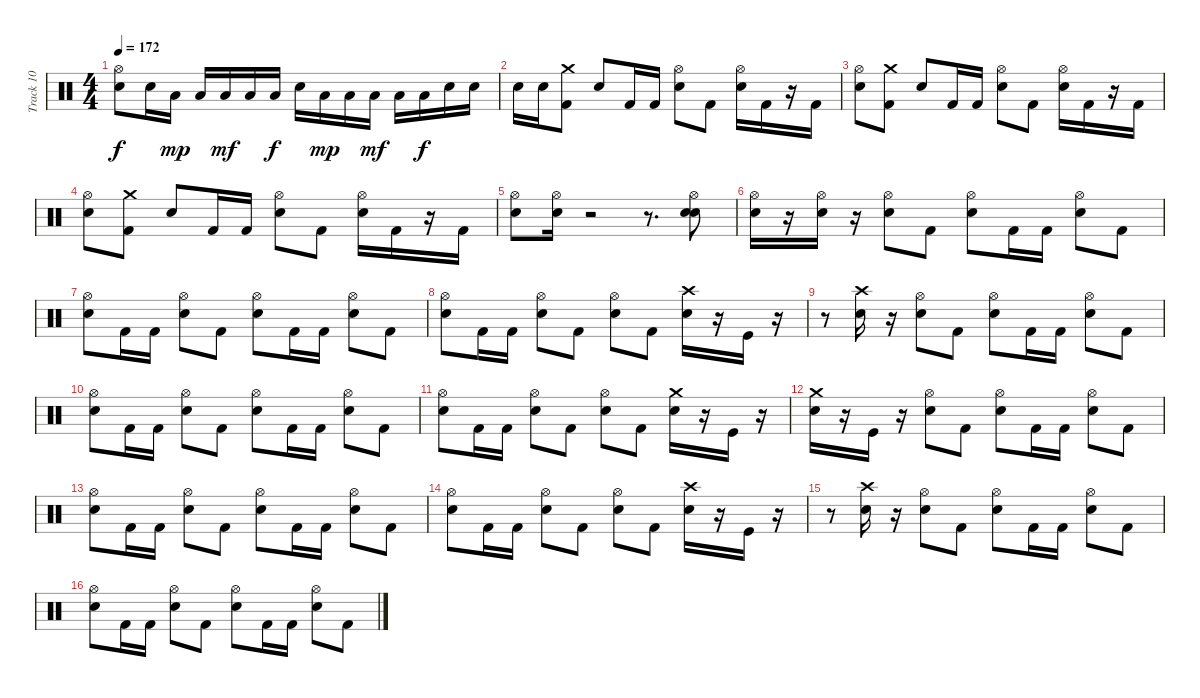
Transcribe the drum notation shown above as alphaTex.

\track ("Track 10" "Track 10") {instrument percussion}
\staff {score}
\articulation defaults
\ts (4 4)
\tempo 172
\clef neutral
\ks c
("Hi-Hat (open)" "Electric Snare (hit)").8{dy f} "Electric Snare (hit)".16 "Low Tom (hit)".16{dy mp} "Low Tom (hit)".16 "Low Tom (hit)".16{dy mf} "Low Tom (hit)".16 "Low Tom (hit)".16{dy f} "Electric Snare (hit)".16 "Low Tom (hit)".16{dy mp} "Low Tom (hit)".16 "Low Tom (hit)".16{dy mf} "Low Tom (hit)".16 "Low Tom (hit)".16{dy f} "Electric Snare (hit)".16 "Electric Snare (hit)".16 |
"Electric Snare (hit)".16 "Electric Snare (hit)".16 ("Crash medium (hit)" "Kick (hit) 2").8 "Electric Snare (hit)".8 "Kick (hit) 2".16 "Kick (hit) 2".16 ("Hi-Hat (open)" "Electric Snare (hit)").8 "Kick (hit) 2".8 ("Hi-Hat (open)" "Electric Snare (hit)").16 "Kick (hit) 2".16 r.16 "Kick (hit) 2".16 |
("Hi-Hat (open)" "Electric Snare (hit)").8 ("Crash medium (hit)" "Kick (hit) 2").8 "Electric Snare (hit)".8 "Kick (hit) 2".16 "Kick (hit) 2".16 ("Hi-Hat (open)" "Electric Snare (hit)").8 "Kick (hit) 2".8 ("Hi-Hat (open)" "Electric Snare (hit)").16 "Kick (hit) 2".16 r.16 "Kick (hit) 2".16 |
("Hi-Hat (open)" "Electric Snare (hit)").8 ("Crash medium (hit)" "Kick (hit) 2").8 "Electric Snare (hit)".8 "Kick (hit) 2".16 "Kick (hit) 2".16 ("Hi-Hat (open)" "Electric Snare (hit)").8 "Kick (hit) 2".8 ("Hi-Hat (open)" "Electric Snare (hit)").16 "Kick (hit) 2".16 r.16 "Kick (hit) 2".16 |
("Hi-Hat (open)" "Electric Snare (hit)").8 ("Electric Snare (hit)" "Hi-Hat (open)").16 r.2 r.8{d} ("Electric Snare (hit)" "Hi-Hat (open)" "Electric Snare (hit)").8 |
("Hi-Hat (open)" "Electric Snare (hit)").16 r.16 ("Hi-Hat (open)" "Electric Snare (hit)").16 r.16 ("Hi-Hat (open)" "Electric Snare (hit)").8 "Kick (hit) 2".8 ("Hi-Hat (open)" "Electric Snare (hit)").8 "Kick (hit) 2".16 "Kick (hit) 2".16 ("Hi-Hat (open)" "Electric Snare (hit)").8 "Kick (hit) 2".8 |
("Hi-Hat (open)" "Electric Snare (hit)").8 "Kick (hit) 2".16 "Kick (hit) 2".16 ("Hi-Hat (open)" "Electric Snare (hit)").8 "Kick (hit) 2".8 ("Hi-Hat (open)" "Electric Snare (hit)").8 "Kick (hit) 2".16 "Kick (hit) 2".16 ("Hi-Hat (open)" "Electric Snare (hit)").8 "Kick (hit) 2".8 |
("Hi-Hat (open)" "Electric Snare (hit)").8 "Kick (hit) 2".16 "Kick (hit) 2".16 ("Hi-Hat (open)" "Electric Snare (hit)").8 "Kick (hit) 2".8 ("Hi-Hat (open)" "Electric Snare (hit)").8 "Kick (hit) 2".8 ("Crash high (hit)" "Electric Snare (hit)").16 r.16 "Kick (hit)".16 r.16 |
r.8 ("Crash high (hit)" "Electric Snare (hit)").16 r.16 ("Hi-Hat (open)" "Electric Snare (hit)").8 "Kick (hit) 2".8 ("Hi-Hat (open)" "Electric Snare (hit)").8 "Kick (hit) 2".16 "Kick (hit) 2".16 ("Hi-Hat (open)" "Electric Snare (hit)").8 "Kick (hit) 2".8 |
("Hi-Hat (open)" "Electric Snare (hit)").8 "Kick (hit) 2".16 "Kick (hit) 2".16 ("Hi-Hat (open)" "Electric Snare (hit)").8 "Kick (hit) 2".8 ("Hi-Hat (open)" "Electric Snare (hit)").8 "Kick (hit) 2".16 "Kick (hit) 2".16 ("Hi-Hat (open)" "Electric Snare (hit)").8 "Kick (hit) 2".8 |
("Hi-Hat (open)" "Electric Snare (hit)").8 "Kick (hit) 2".16 "Kick (hit) 2".16 ("Hi-Hat (open)" "Electric Snare (hit)").8 "Kick (hit) 2".8 ("Hi-Hat (open)" "Electric Snare (hit)").8 "Kick (hit) 2".8 ("Crash medium (hit)" "Electric Snare (hit)").16 r.16 "Kick (hit)".16 r.16 |
("Crash medium (hit)" "Electric Snare (hit)").16 r.16 "Kick (hit)".16 r.16 ("Hi-Hat (open)" "Electric Snare (hit)").8 "Kick (hit) 2".8 ("Hi-Hat (open)" "Electric Snare (hit)").8 "Kick (hit) 2".16 "Kick (hit) 2".16 ("Hi-Hat (open)" "Electric Snare (hit)").8 "Kick (hit) 2".8 |
("Hi-Hat (open)" "Electric Snare (hit)").8 "Kick (hit) 2".16 "Kick (hit) 2".16 ("Hi-Hat (open)" "Electric Snare (hit)").8 "Kick (hit) 2".8 ("Hi-Hat (open)" "Electric Snare (hit)").8 "Kick (hit) 2".16 "Kick (hit) 2".16 ("Hi-Hat (open)" "Electric Snare (hit)").8 "Kick (hit) 2".8 |
("Hi-Hat (open)" "Electric Snare (hit)").8 "Kick (hit) 2".16 "Kick (hit) 2".16 ("Hi-Hat (open)" "Electric Snare (hit)").8 "Kick (hit) 2".8 ("Hi-Hat (open)" "Electric Snare (hit)").8 "Kick (hit) 2".8 ("Crash high (hit)" "Electric Snare (hit)").16 r.16 "Kick (hit)".16 r.16 |
r.8 ("Crash high (hit)" "Electric Snare (hit)").16 r.16 ("Hi-Hat (open)" "Electric Snare (hit)").8 "Kick (hit) 2".8 ("Hi-Hat (open)" "Electric Snare (hit)").8 "Kick (hit) 2".16 "Kick (hit) 2".16 ("Hi-Hat (open)" "Electric Snare (hit)").8 "Kick (hit) 2".8 |
("Hi-Hat (open)" "Electric Snare (hit)").8 "Kick (hit) 2".16 "Kick (hit) 2".16 ("Hi-Hat (open)" "Electric Snare (hit)").8 "Kick (hit) 2".8 ("Hi-Hat (open)" "Electric Snare (hit)").8 "Kick (hit) 2".16 "Kick (hit) 2".16 ("Hi-Hat (open)" "Electric Snare (hit)").8 "Kick (hit) 2".8
